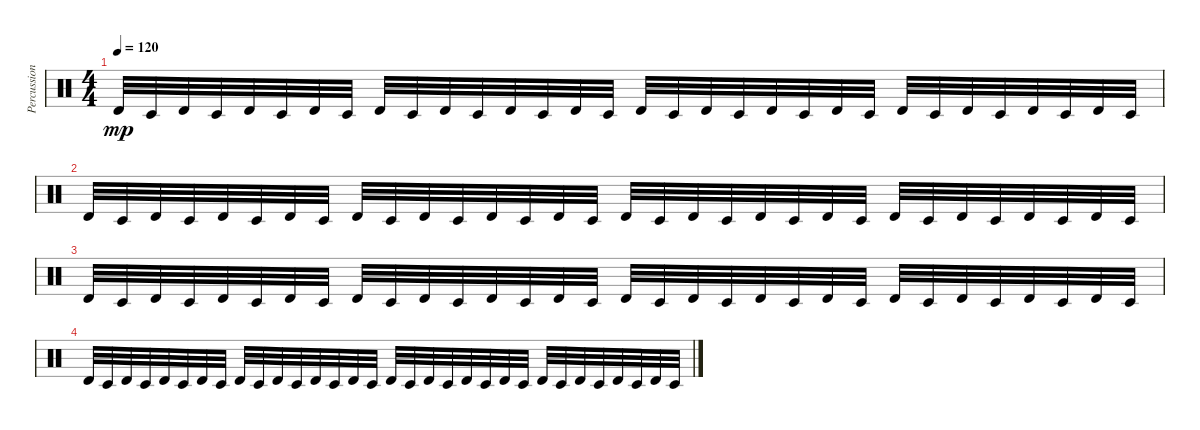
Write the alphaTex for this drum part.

\track ("Percussion" "Percussion") {instrument percussion}
\staff {score}
\articulation defaults
\ts (4 4)
\tempo 120
\clef neutral
\ks c "Timbale high (hit)".32{dy mp} "Timbale low (hit)".32 "Timbale high (hit)".32 "Timbale low (hit)".32 "Timbale high (hit)".32 "Timbale low (hit)".32 "Timbale high (hit)".32 "Timbale low (hit)".32 "Timbale high (hit)".32 "Timbale low (hit)".32 "Timbale high (hit)".32 "Timbale low (hit)".32 "Timbale high (hit)".32 "Timbale low (hit)".32 "Timbale high (hit)".32 "Timbale low (hit)".32 "Timbale high (hit)".32 "Timbale low (hit)".32 "Timbale high (hit)".32 "Timbale low (hit)".32 "Timbale high (hit)".32 "Timbale low (hit)".32 "Timbale high (hit)".32 "Timbale low (hit)".32 "Timbale high (hit)".32 "Timbale low (hit)".32 "Timbale high (hit)".32 "Timbale low (hit)".32 "Timbale high (hit)".32 "Timbale low (hit)".32 "Timbale high (hit)".32 "Timbale low (hit)".32
|
"Timbale high (hit)".32 "Timbale low (hit)".32 "Timbale high (hit)".32 "Timbale low (hit)".32 "Timbale high (hit)".32 "Timbale low (hit)".32 "Timbale high (hit)".32 "Timbale low (hit)".32 "Timbale high (hit)".32 "Timbale low (hit)".32 "Timbale high (hit)".32 "Timbale low (hit)".32 "Timbale high (hit)".32 "Timbale low (hit)".32 "Timbale high (hit)".32 "Timbale low (hit)".32 "Timbale high (hit)".32 "Timbale low (hit)".32 "Timbale high (hit)".32 "Timbale low (hit)".32 "Timbale high (hit)".32 "Timbale low (hit)".32 "Timbale high (hit)".32 "Timbale low (hit)".32 "Timbale high (hit)".32 "Timbale low (hit)".32 "Timbale high (hit)".32 "Timbale low (hit)".32 "Timbale high (hit)".32 "Timbale low (hit)".32 "Timbale high (hit)".32 "Timbale low (hit)".32 |
"Timbale high (hit)".32 "Timbale low (hit)".32 "Timbale high (hit)".32 "Timbale low (hit)".32 "Timbale high (hit)".32 "Timbale low (hit)".32 "Timbale high (hit)".32 "Timbale low (hit)".32 "Timbale high (hit)".32 "Timbale low (hit)".32 "Timbale high (hit)".32 "Timbale low (hit)".32 "Timbale high (hit)".32 "Timbale low (hit)".32 "Timbale high (hit)".32 "Timbale low (hit)".32 "Timbale high (hit)".32 "Timbale low (hit)".32 "Timbale high (hit)".32 "Timbale low (hit)".32 "Timbale high (hit)".32 "Timbale low (hit)".32 "Timbale high (hit)".32 "Timbale low (hit)".32 "Timbale high (hit)".32 "Timbale low (hit)".32 "Timbale high (hit)".32 "Timbale low (hit)".32 "Timbale high (hit)".32 "Timbale low (hit)".32 "Timbale high (hit)".32 "Timbale low (hit)".32 |
"Timbale high (hit)".32 "Timbale low (hit)".32 "Timbale high (hit)".32 "Timbale low (hit)".32 "Timbale high (hit)".32 "Timbale low (hit)".32 "Timbale high (hit)".32 "Timbale low (hit)".32 "Timbale high (hit)".32 "Timbale low (hit)".32 "Timbale high (hit)".32 "Timbale low (hit)".32 "Timbale high (hit)".32 "Timbale low (hit)".32 "Timbale high (hit)".32 "Timbale low (hit)".32 "Timbale high (hit)".32 "Timbale low (hit)".32 "Timbale high (hit)".32 "Timbale low (hit)".32 "Timbale high (hit)".32 "Timbale low (hit)".32 "Timbale high (hit)".32 "Timbale low (hit)".32 "Timbale high (hit)".32 "Timbale low (hit)".32 "Timbale high (hit)".32 "Timbale low (hit)".32 "Timbale high (hit)".32 "Timbale low (hit)".32 "Timbale high (hit)".32 "Timbale low (hit)".32
